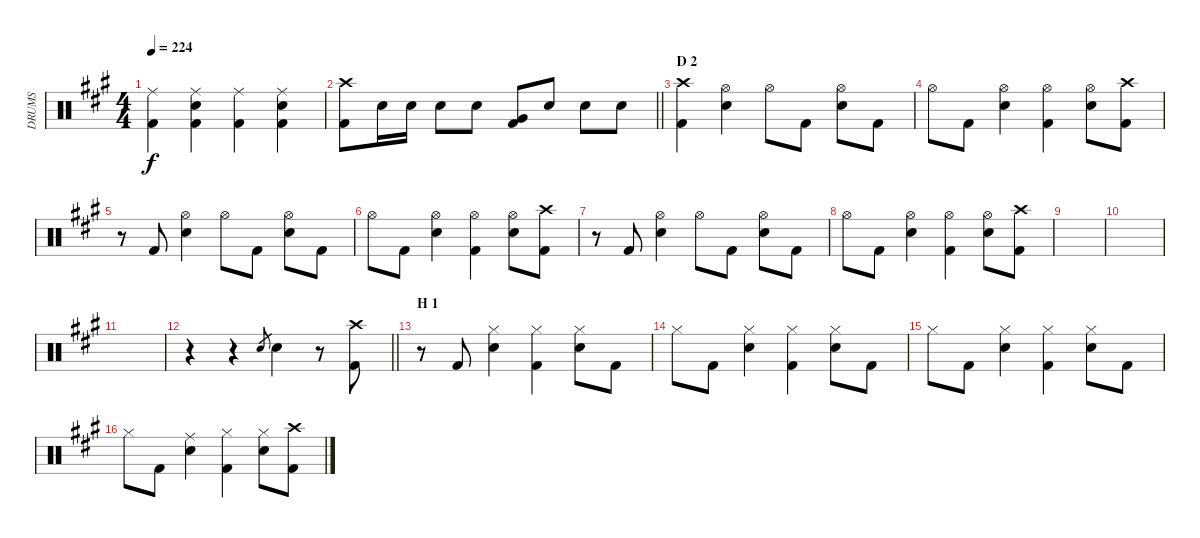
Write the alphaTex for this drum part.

\track ("DRUMS" "DRUMS") {instrument percussion}
\staff {score}
\articulation defaults
\ts (4 4)
\tempo 224
\clef neutral
\ks a
("Ride (middle)" "Kick (hit) 2").4{dy f} ("Ride (middle)" "Snare (hit) 2" "Kick (hit) 2").4 ("Ride (middle)" "Kick (hit) 2").4 ("Ride (middle)" "Snare (hit) 2" "Kick (hit) 2").4 |
\barLineRight lightlight
("Crash high (hit)" "Kick (hit) 2").8 "Snare (hit) 2".16 "Snare (hit) 2".16 "Snare (hit) 2".8 "Snare (hit) 2".8 ("Very Low Tom (hit)" "Kick (hit) 2").8 "Snare (hit) 2".8 "Snare (hit) 2".8 "Snare (hit) 2".8 |
\section ("" "D 2")
("Crash high (hit)" "Kick (hit) 2").4 ("Hi-Hat (open)" "Snare (hit) 2").4 "Hi-Hat (open)".8 "Kick (hit) 2".8 ("Hi-Hat (open)" "Snare (hit) 2").8 "Kick (hit) 2".8 |
"Hi-Hat (open)".8 "Kick (hit) 2".8 ("Hi-Hat (open)" "Snare (hit) 2").4 ("Hi-Hat (open)" "Kick (hit) 2").4 ("Hi-Hat (open)" "Snare (hit) 2").8 ("Crash high (hit)" "Kick (hit) 2").8 |
r.8 "Kick (hit) 2".8 ("Hi-Hat (open)" "Snare (hit) 2").4 "Hi-Hat (open)".8 "Kick (hit) 2".8 ("Hi-Hat (open)" "Snare (hit) 2").8 "Kick (hit) 2".8 |
"Hi-Hat (open)".8 "Kick (hit) 2".8 ("Hi-Hat (open)" "Snare (hit) 2").4 ("Hi-Hat (open)" "Kick (hit) 2").4 ("Hi-Hat (open)" "Snare (hit) 2").8 ("Crash high (hit)" "Kick (hit) 2").8 |
r.8 "Kick (hit) 2".8 ("Hi-Hat (open)" "Snare (hit) 2").4 "Hi-Hat (open)".8 "Kick (hit) 2".8 ("Hi-Hat (open)" "Snare (hit) 2").8 "Kick (hit) 2".8 |
"Hi-Hat (open)".8 "Kick (hit) 2".8 ("Hi-Hat (open)" "Snare (hit) 2").4 ("Hi-Hat (open)" "Kick (hit) 2").4 ("Hi-Hat (open)" "Snare (hit) 2").8 ("Crash high (hit)" "Kick (hit) 2").8 |
|
|
|
\barLineRight lightlight
r.4 r.4 "Snare (hit) 2".8{gr} "Snare (hit) 2".4 r.8 ("Crash high (hit)" "Kick (hit) 2").8 |
\section ("" "H 1")
r.8 "Kick (hit) 2".8 ("Hi-Hat (closed)" "Snare (hit) 2").4 ("Hi-Hat (closed)" "Kick (hit) 2").4 ("Hi-Hat (closed)" "Snare (hit) 2").8 "Kick (hit) 2".8 |
"Hi-Hat (closed)".8 "Kick (hit) 2".8 ("Hi-Hat (closed)" "Snare (hit) 2").4 ("Hi-Hat (closed)" "Kick (hit) 2").4 ("Hi-Hat (closed)" "Snare (hit) 2").8 "Kick (hit) 2".8 |
"Hi-Hat (closed)".8 "Kick (hit) 2".8 ("Hi-Hat (closed)" "Snare (hit) 2").4 ("Hi-Hat (closed)" "Kick (hit) 2").4 ("Hi-Hat (closed)" "Snare (hit) 2").8 "Kick (hit) 2".8 |
"Hi-Hat (closed)".8 "Kick (hit) 2".8 ("Ride (middle)" "Snare (hit) 2").4 ("Hi-Hat (closed)" "Kick (hit) 2").4 ("Hi-Hat (closed)" "Snare (hit) 2").8 ("Crash high (hit)" "Kick (hit) 2").8
